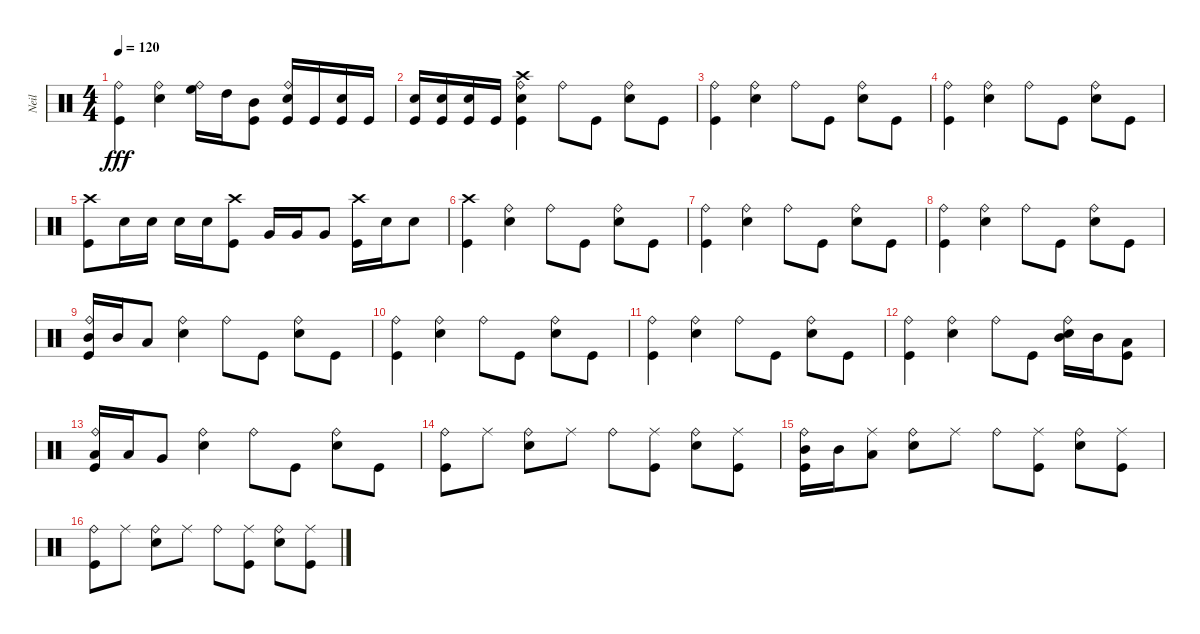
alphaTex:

\track ("Neil" "Neil") {instrument percussion}
\staff {score}
\articulation defaults
\ts (4 4)
\tempo 120
\clef neutral
\ks c
("Kick (hit)" "Ride (bell)").4{dy fff} ("Snare (hit) 2" "Ride (bell)").4 ("High Floor Tom (hit)" "Ride (bell)").16 "High Tom (hit)".16 ("Mid Tom (hit)" "Kick (hit)").8 ("Ride (bell)" "Kick (hit)" "Snare (hit) 2").16 "Kick (hit)".16 ("Kick (hit)" "Snare (hit) 2").16 "Kick (hit)".16 |
("Snare (hit) 2" "Kick (hit)").16 ("Snare (hit) 2" "Kick (hit)").16 ("Kick (hit)" "Snare (hit) 2").16 "Kick (hit)".16 ("Ride (bell)" "Crash high (hit)" "Snare (hit) 2" "Kick (hit)").4 "Ride (bell)".8 "Kick (hit)".8 ("Snare (hit) 2" "Ride (bell)").8 "Kick (hit)".8 |
("Kick (hit)" "Ride (bell)").4 ("Snare (hit) 2" "Ride (bell)").4 "Ride (bell)".8 "Kick (hit)".8 ("Snare (hit) 2" "Ride (bell)").8 "Kick (hit)".8 |
("Kick (hit)" "Ride (bell)").4 ("Snare (hit) 2" "Ride (bell)").4 "Ride (bell)".8 "Kick (hit)".8 ("Snare (hit) 2" "Ride (bell)").8 "Kick (hit)".8 |
("Crash high (hit)" "Kick (hit)").8 "Snare (hit) 2".16 "Snare (hit) 2".16 "Snare (hit) 2".16 "Snare (hit) 2".16 ("Kick (hit)" "Crash high (hit)").8 "Very Low Tom (hit)".16 "Very Low Tom (hit)".16 "Very Low Tom (hit)".8 ("Kick (hit)" "Crash high (hit)").16 "Snare (hit) 2".16 "Snare (hit) 2".8 |
("Crash high (hit)" "Kick (hit)").4 ("Ride (bell)" "Snare (hit) 2").4 "Ride (bell)".8 "Kick (hit)".8 ("Snare (hit) 2" "Ride (bell)").8 "Kick (hit)".8 |
("Ride (bell)" "Kick (hit)").4 ("Snare (hit) 2" "Ride (bell)").4 "Ride (bell)".8 "Kick (hit)".8 ("Ride (bell)" "Snare (hit) 2").8 "Kick (hit)".8 |
("Kick (hit)" "Ride (bell)").4 ("Snare (hit) 2" "Ride (bell)").4 "Ride (bell)".8 "Kick (hit)".8 ("Ride (bell)" "Snare (hit) 2").8 "Kick (hit)".8 |
("Kick (hit)" "Mid Tom (hit)" "Ride (bell)").16 "Mid Tom (hit)".16 "Low Tom (hit)".8 ("Snare (hit) 2" "Ride (bell)").4 "Ride (bell)".8 "Kick (hit)".8 ("Snare (hit) 2" "Ride (bell)").8 "Kick (hit)".8 |
("Kick (hit)" "Ride (bell)").4 ("Ride (bell)" "Snare (hit) 2").4 "Ride (bell)".8 "Kick (hit)".8 ("Snare (hit) 2" "Ride (bell)").8 "Kick (hit)".8 |
("Kick (hit)" "Ride (bell)").4 ("Ride (bell)" "Snare (hit) 2").4 "Ride (bell)".8 "Kick (hit)".8 ("Snare (hit) 2" "Ride (bell)").8 "Kick (hit)".8 |
("Ride (bell)" "Kick (hit)").4 ("Ride (bell)" "Snare (hit) 2").4 "Ride (bell)".8 "Kick (hit)".8 ("Ride (bell)" "Mid Tom (hit)" "Snare (hit) 2").16 "Mid Tom (hit)".16 ("Low Tom (hit)" "Kick (hit)").8 |
("Kick (hit)" "Ride (bell)" "Low Tom (hit)").16 "Low Tom (hit)".16 "Very Low Tom (hit)".8 ("Ride (bell)" "Snare (hit) 2").4 "Ride (bell)".8 "Kick (hit)".8 ("Ride (bell)" "Snare (hit) 2").8 "Kick (hit)".8 |
("Kick (hit)" "Ride (bell)").8 "Ride (middle)".8 ("Snare (hit) 2" "Ride (bell)").8 "Ride (middle)".8 "Ride (bell)".8 ("Ride (middle)" "Kick (hit)").8 ("Ride (bell)" "Snare (hit) 2").8 ("Kick (hit)" "Ride (middle)").8 |
("Mid Tom (hit)" "Ride (bell)" "Kick (hit)").16 "Mid Tom (hit)".16 ("Ride (middle)" "Low Tom (hit)").8 ("Snare (hit) 2" "Ride (bell)").8 "Ride (middle)".8 "Ride (bell)".8 ("Ride (middle)" "Kick (hit)").8 ("Ride (bell)" "Snare (hit) 2").8 ("Ride (middle)" "Kick (hit)").8 |
("Ride (bell)" "Kick (hit)").8 "Ride (middle)".8 ("Ride (bell)" "Snare (hit) 2").8 "Ride (middle)".8 "Ride (bell)".8 ("Ride (middle)" "Kick (hit)").8 ("Ride (bell)" "Snare (hit) 2").8 ("Ride (middle)" "Kick (hit)").8
